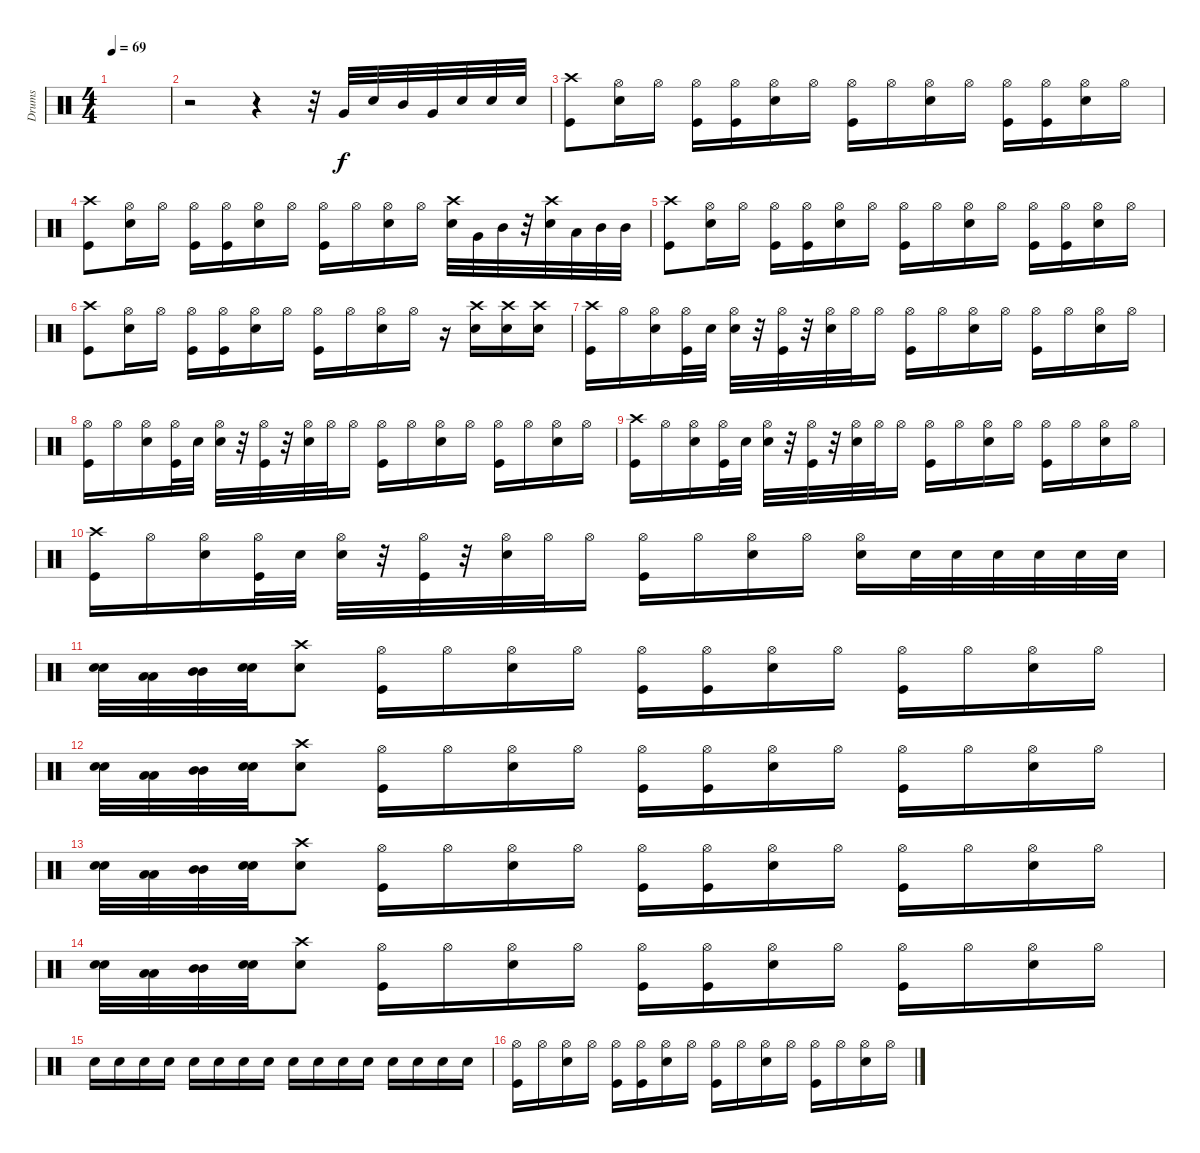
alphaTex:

\track ("Drums" "Drums") {instrument percussion}
\staff {score}
\articulation defaults
\ts (4 4)
\tempo 69
\clef neutral
\ks c
|
r.2 r.4 r.32 "Very Low Tom (hit)".32 "Snare (hit) 2".32 "Mid Tom (hit)".32 "Very Low Tom (hit)".32 "Snare (hit) 2".32 "Snare (hit) 2".32 "Snare (hit) 2".32 |
("Crash high (hit)" "Kick (hit)").8 ("Hi-Hat (open)" "Snare (hit) 2").16 "Hi-Hat (open)".16 ("Hi-Hat (open)" "Kick (hit)").16 ("Hi-Hat (open)" "Kick (hit)").16 ("Hi-Hat (open)" "Snare (hit) 2").16 "Hi-Hat (open)".16 ("Hi-Hat (open)" "Kick (hit)").16 "Hi-Hat (open)".16 ("Hi-Hat (open)" "Snare (hit) 2").16 "Hi-Hat (open)".16 ("Hi-Hat (open)" "Kick (hit)").16 ("Hi-Hat (open)" "Kick (hit)").16 ("Hi-Hat (open)" "Snare (hit) 2").16 "Hi-Hat (open)".16 |
("Crash high (hit)" "Kick (hit)").8 ("Hi-Hat (open)" "Snare (hit) 2").16 "Hi-Hat (open)".16 ("Hi-Hat (open)" "Kick (hit)").16 ("Hi-Hat (open)" "Kick (hit)").16 ("Hi-Hat (open)" "Snare (hit) 2").16 "Hi-Hat (open)".16 ("Hi-Hat (open)" "Kick (hit)").16 "Hi-Hat (open)".16 ("Hi-Hat (open)" "Snare (hit) 2").16 "Hi-Hat (open)".16 ("Crash high (hit)" "Snare (hit) 2").32 "Very Low Tom (hit)".32 "Mid Tom (hit)".32 r.32 ("Crash high (hit)" "Snare (hit) 2").32 "Low Tom (hit)".32 "Mid Tom (hit)".32 "Mid Tom (hit)".32 |
("Crash high (hit)" "Kick (hit)").8 ("Hi-Hat (open)" "Snare (hit) 2").16 "Hi-Hat (open)".16 ("Hi-Hat (open)" "Kick (hit)").16 ("Hi-Hat (open)" "Kick (hit)").16 ("Hi-Hat (open)" "Snare (hit) 2").16 "Hi-Hat (open)".16 ("Hi-Hat (open)" "Kick (hit)").16 "Hi-Hat (open)".16 ("Hi-Hat (open)" "Snare (hit) 2").16 "Hi-Hat (open)".16 ("Hi-Hat (open)" "Kick (hit)").16 ("Hi-Hat (open)" "Kick (hit)").16 ("Hi-Hat (open)" "Snare (hit) 2").16 "Hi-Hat (open)".16 |
("Crash high (hit)" "Kick (hit)").8 ("Hi-Hat (open)" "Snare (hit) 2").16 "Hi-Hat (open)".16 ("Hi-Hat (open)" "Kick (hit)").16 ("Hi-Hat (open)" "Kick (hit)").16 ("Hi-Hat (open)" "Snare (hit) 2").16 "Hi-Hat (open)".16 ("Hi-Hat (open)" "Kick (hit)").16 "Hi-Hat (open)".16 ("Hi-Hat (open)" "Snare (hit) 2").16 "Hi-Hat (open)".16 r.16 ("Crash high (hit)" "Snare (hit) 2").16 ("Crash high (hit)" "Snare (hit) 2").16 ("Crash high (hit)" "Snare (hit) 2").16 |
("Crash high (hit)" "Kick (hit)").16 "Hi-Hat (open)".16 ("Hi-Hat (open)" "Snare (hit) 2").16 ("Hi-Hat (open)" "Kick (hit)").32 "Snare (hit) 2".32 ("Hi-Hat (open)" "Snare (hit) 2").32 r.32 ("Hi-Hat (open)" "Kick (hit)").32 r.32 ("Hi-Hat (open)" "Snare (hit) 2").32 "Hi-Hat (open)".32 "Hi-Hat (open)".16 ("Hi-Hat (open)" "Kick (hit)").16 "Hi-Hat (open)".16 ("Hi-Hat (open)" "Snare (hit) 2").16 "Hi-Hat (open)".16 ("Hi-Hat (open)" "Kick (hit)").16 "Hi-Hat (open)".16 ("Hi-Hat (open)" "Snare (hit) 2").16 "Hi-Hat (open)".16 |
("Hi-Hat (open)" "Kick (hit)").16 "Hi-Hat (open)".16 ("Hi-Hat (open)" "Snare (hit) 2").16 ("Hi-Hat (open)" "Kick (hit)").32 "Snare (hit) 2".32 ("Hi-Hat (open)" "Snare (hit) 2").32 r.32 ("Hi-Hat (open)" "Kick (hit)").32 r.32 ("Hi-Hat (open)" "Snare (hit) 2").32 "Hi-Hat (open)".32 "Hi-Hat (open)".16 ("Hi-Hat (open)" "Kick (hit)").16 "Hi-Hat (open)".16 ("Hi-Hat (open)" "Snare (hit) 2").16 "Hi-Hat (open)".16 ("Hi-Hat (open)" "Kick (hit)").16 "Hi-Hat (open)".16 ("Hi-Hat (open)" "Snare (hit) 2").16 "Hi-Hat (open)".16 |
("Crash high (hit)" "Kick (hit)").16 "Hi-Hat (open)".16 ("Hi-Hat (open)" "Snare (hit) 2").16 ("Hi-Hat (open)" "Kick (hit)").32 "Snare (hit) 2".32 ("Hi-Hat (open)" "Snare (hit) 2").32 r.32 ("Hi-Hat (open)" "Kick (hit)").32 r.32 ("Hi-Hat (open)" "Snare (hit) 2").32 "Hi-Hat (open)".32 "Hi-Hat (open)".16 ("Hi-Hat (open)" "Kick (hit)").16 "Hi-Hat (open)".16 ("Hi-Hat (open)" "Snare (hit) 2").16 "Hi-Hat (open)".16 ("Hi-Hat (open)" "Kick (hit)").16 "Hi-Hat (open)".16 ("Hi-Hat (open)" "Snare (hit) 2").16 "Hi-Hat (open)".16 |
("Crash high (hit)" "Kick (hit)").16 "Hi-Hat (open)".16 ("Hi-Hat (open)" "Snare (hit) 2").16 ("Hi-Hat (open)" "Kick (hit)").32 "Snare (hit) 2".32 ("Hi-Hat (open)" "Snare (hit) 2").32 r.32 ("Hi-Hat (open)" "Kick (hit)").32 r.32 ("Hi-Hat (open)" "Snare (hit) 2").32 "Hi-Hat (open)".32 "Hi-Hat (open)".16 ("Hi-Hat (open)" "Kick (hit)").16 "Hi-Hat (open)".16 ("Hi-Hat (open)" "Snare (hit) 2").16 "Hi-Hat (open)".16 ("Hi-Hat (open)" "Snare (hit) 2").16 "Snare (hit) 2".32 "Snare (hit) 2".32 "Snare (hit) 2".32 "Snare (hit) 2".32 "Snare (hit) 2".32 "Snare (hit) 2".32 |
("Snare (hit) 2" "Snare (hit) 2").32 ("Low Tom (hit)" "Low Tom (hit)").32 ("Mid Tom (hit)" "Mid Tom (hit)").32 ("Snare (hit) 2" "Snare (hit) 2").32 ("Crash high (hit)" "Snare (hit) 2").8 ("Hi-Hat (open)" "Kick (hit)").16 "Hi-Hat (open)".16 ("Hi-Hat (open)" "Snare (hit) 2").16 "Hi-Hat (open)".16 ("Hi-Hat (open)" "Kick (hit)").16 ("Hi-Hat (open)" "Kick (hit)").16 ("Hi-Hat (open)" "Snare (hit) 2").16 "Hi-Hat (open)".16 ("Hi-Hat (open)" "Kick (hit)").16 "Hi-Hat (open)".16 ("Hi-Hat (open)" "Snare (hit) 2").16 "Hi-Hat (open)".16 |
("Snare (hit) 2" "Snare (hit) 2").32 ("Low Tom (hit)" "Low Tom (hit)").32 ("Mid Tom (hit)" "Mid Tom (hit)").32 ("Snare (hit) 2" "Snare (hit) 2").32 ("Crash high (hit)" "Snare (hit) 2").8 ("Hi-Hat (open)" "Kick (hit)").16 "Hi-Hat (open)".16 ("Hi-Hat (open)" "Snare (hit) 2").16 "Hi-Hat (open)".16 ("Hi-Hat (open)" "Kick (hit)").16 ("Hi-Hat (open)" "Kick (hit)").16 ("Hi-Hat (open)" "Snare (hit) 2").16 "Hi-Hat (open)".16 ("Hi-Hat (open)" "Kick (hit)").16 "Hi-Hat (open)".16 ("Hi-Hat (open)" "Snare (hit) 2").16 "Hi-Hat (open)".16 |
("Snare (hit) 2" "Snare (hit) 2").32 ("Low Tom (hit)" "Low Tom (hit)").32 ("Mid Tom (hit)" "Mid Tom (hit)").32 ("Snare (hit) 2" "Snare (hit) 2").32 ("Crash high (hit)" "Snare (hit) 2").8 ("Hi-Hat (open)" "Kick (hit)").16 "Hi-Hat (open)".16 ("Hi-Hat (open)" "Snare (hit) 2").16 "Hi-Hat (open)".16 ("Hi-Hat (open)" "Kick (hit)").16 ("Hi-Hat (open)" "Kick (hit)").16 ("Hi-Hat (open)" "Snare (hit) 2").16 "Hi-Hat (open)".16 ("Hi-Hat (open)" "Kick (hit)").16 "Hi-Hat (open)".16 ("Hi-Hat (open)" "Snare (hit) 2").16 "Hi-Hat (open)".16 |
("Snare (hit) 2" "Snare (hit) 2").32 ("Low Tom (hit)" "Low Tom (hit)").32 ("Mid Tom (hit)" "Mid Tom (hit)").32 ("Snare (hit) 2" "Snare (hit) 2").32 ("Crash high (hit)" "Snare (hit) 2").8 ("Hi-Hat (open)" "Kick (hit)").16 "Hi-Hat (open)".16 ("Hi-Hat (open)" "Snare (hit) 2").16 "Hi-Hat (open)".16 ("Hi-Hat (open)" "Kick (hit)").16 ("Hi-Hat (open)" "Kick (hit)").16 ("Hi-Hat (open)" "Snare (hit) 2").16 "Hi-Hat (open)".16 ("Hi-Hat (open)" "Kick (hit)").16 "Hi-Hat (open)".16 ("Hi-Hat (open)" "Snare (hit) 2").16 "Hi-Hat (open)".16 |
"Snare (hit) 2".16 "Snare (hit) 2".16 "Snare (hit) 2".16 "Snare (hit) 2".16 "Snare (hit) 2".16 "Snare (hit) 2".16 "Snare (hit) 2".16 "Snare (hit) 2".16 "Snare (hit) 2".16 "Snare (hit) 2".16 "Snare (hit) 2".16 "Snare (hit) 2".16 "Snare (hit) 2".16 "Snare (hit) 2".16 "Snare (hit) 2".16 "Snare (hit) 2".16 |
("Hi-Hat (open)" "Kick (hit)").16 "Hi-Hat (open)".16 ("Hi-Hat (open)" "Snare (hit) 2").16 "Hi-Hat (open)".16 ("Hi-Hat (open)" "Kick (hit)").16 ("Hi-Hat (open)" "Kick (hit)").16 ("Hi-Hat (open)" "Snare (hit) 2").16 "Hi-Hat (open)".16 ("Hi-Hat (open)" "Kick (hit)").16 "Hi-Hat (open)".16 ("Hi-Hat (open)" "Snare (hit) 2").16 "Hi-Hat (open)".16 ("Hi-Hat (open)" "Kick (hit)").16 "Hi-Hat (open)".16 ("Hi-Hat (open)" "Snare (hit) 2").16 "Hi-Hat (open)".16
